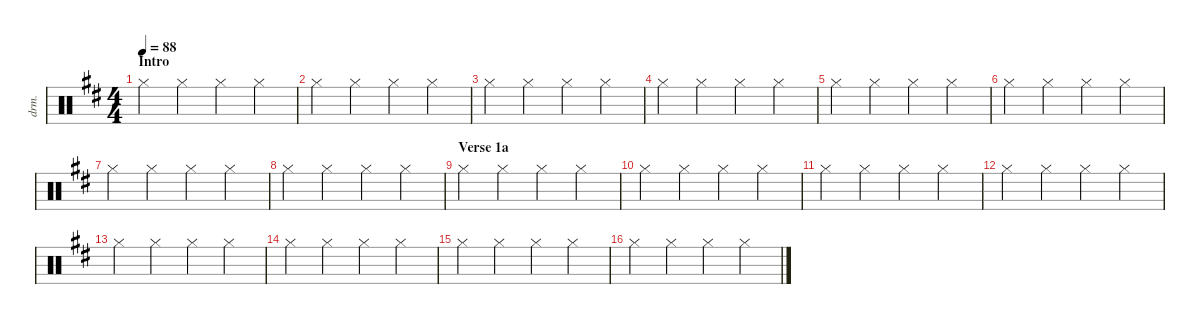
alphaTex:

\defaultSystemsLayout 4
\hideDynamics
\bracketExtendMode nobrackets
\otherSystemsTrackNameOrientation horizontal
\track ("Drumkit" "drm.") {instrument percussion}
\staff {score}
\articulation defaults
\ts (4 4)
\section ("" "Intro")
\tempo 88
\clef neutral
\ks d "Hi-Hat (closed)"{acc forcenatural}.4{dy mf beam Down} "Hi-Hat (closed)"{acc forcenatural}.4{beam Down} "Hi-Hat (closed)"{acc forcenatural}.4{beam Down} "Hi-Hat (closed)"{acc forcenatural}.4{beam Down}
|
"Hi-Hat (closed)"{acc forcenatural}.4{beam Down} "Hi-Hat (closed)"{acc forcenatural}.4{beam Down} "Hi-Hat (closed)"{acc forcenatural}.4{beam Down} "Hi-Hat (closed)"{acc forcenatural}.4{beam Down} |
"Hi-Hat (closed)"{acc forcenatural}.4{beam Down} "Hi-Hat (closed)"{acc forcenatural}.4{beam Down} "Hi-Hat (closed)"{acc forcenatural}.4{beam Down} "Hi-Hat (closed)"{acc forcenatural}.4{beam Down} |
"Hi-Hat (closed)"{acc forcenatural}.4{beam Down} "Hi-Hat (closed)"{acc forcenatural}.4{beam Down} "Hi-Hat (closed)"{acc forcenatural}.4{beam Down} "Hi-Hat (closed)"{acc forcenatural}.4{beam Down} |
"Hi-Hat (closed)"{acc forcenatural}.4{beam Down} "Hi-Hat (closed)"{acc forcenatural}.4{beam Down} "Hi-Hat (closed)"{acc forcenatural}.4{beam Down} "Hi-Hat (closed)"{acc forcenatural}.4{beam Down} |
"Hi-Hat (closed)"{acc forcenatural}.4{beam Down} "Hi-Hat (closed)"{acc forcenatural}.4{beam Down} "Hi-Hat (closed)"{acc forcenatural}.4{beam Down} "Hi-Hat (closed)"{acc forcenatural}.4{beam Down} |
"Hi-Hat (closed)"{acc forcenatural}.4{beam Down} "Hi-Hat (closed)"{acc forcenatural}.4{beam Down} "Hi-Hat (closed)"{acc forcenatural}.4{beam Down} "Hi-Hat (closed)"{acc forcenatural}.4{beam Down} |
"Hi-Hat (closed)"{acc forcenatural}.4{beam Down} "Hi-Hat (closed)"{acc forcenatural}.4{beam Down} "Hi-Hat (closed)"{acc forcenatural}.4{beam Down} "Hi-Hat (closed)"{acc forcenatural}.4{beam Down} |
\section ("" "Verse 1a")
"Hi-Hat (closed)"{acc forcenatural}.4{beam Down} "Hi-Hat (closed)"{acc forcenatural}.4{beam Down} "Hi-Hat (closed)"{acc forcenatural}.4{beam Down} "Hi-Hat (closed)"{acc forcenatural}.4{beam Down} |
"Hi-Hat (closed)"{acc forcenatural}.4{beam Down} "Hi-Hat (closed)"{acc forcenatural}.4{beam Down} "Hi-Hat (closed)"{acc forcenatural}.4{beam Down} "Hi-Hat (closed)"{acc forcenatural}.4{beam Down} |
"Hi-Hat (closed)"{acc forcenatural}.4{beam Down} "Hi-Hat (closed)"{acc forcenatural}.4{beam Down} "Hi-Hat (closed)"{acc forcenatural}.4{beam Down} "Hi-Hat (closed)"{acc forcenatural}.4{beam Down} |
"Hi-Hat (closed)"{acc forcenatural}.4{beam Down} "Hi-Hat (closed)"{acc forcenatural}.4{beam Down} "Hi-Hat (closed)"{acc forcenatural}.4{beam Down} "Hi-Hat (closed)"{acc forcenatural}.4{beam Down} |
"Hi-Hat (closed)"{acc forcenatural}.4{beam Down} "Hi-Hat (closed)"{acc forcenatural}.4{beam Down} "Hi-Hat (closed)"{acc forcenatural}.4{beam Down} "Hi-Hat (closed)"{acc forcenatural}.4{beam Down} |
"Hi-Hat (closed)"{acc forcenatural}.4{beam Down} "Hi-Hat (closed)"{acc forcenatural}.4{beam Down} "Hi-Hat (closed)"{acc forcenatural}.4{beam Down} "Hi-Hat (closed)"{acc forcenatural}.4{beam Down} |
"Hi-Hat (closed)"{acc forcenatural}.4{beam Down} "Hi-Hat (closed)"{acc forcenatural}.4{beam Down} "Hi-Hat (closed)"{acc forcenatural}.4{beam Down} "Hi-Hat (closed)"{acc forcenatural}.4{beam Down} |
"Hi-Hat (closed)"{acc forcenatural}.4{beam Down} "Hi-Hat (closed)"{acc forcenatural}.4{beam Down} "Hi-Hat (closed)"{acc forcenatural}.4{beam Down} "Hi-Hat (closed)"{acc forcenatural}.4{beam Down}
